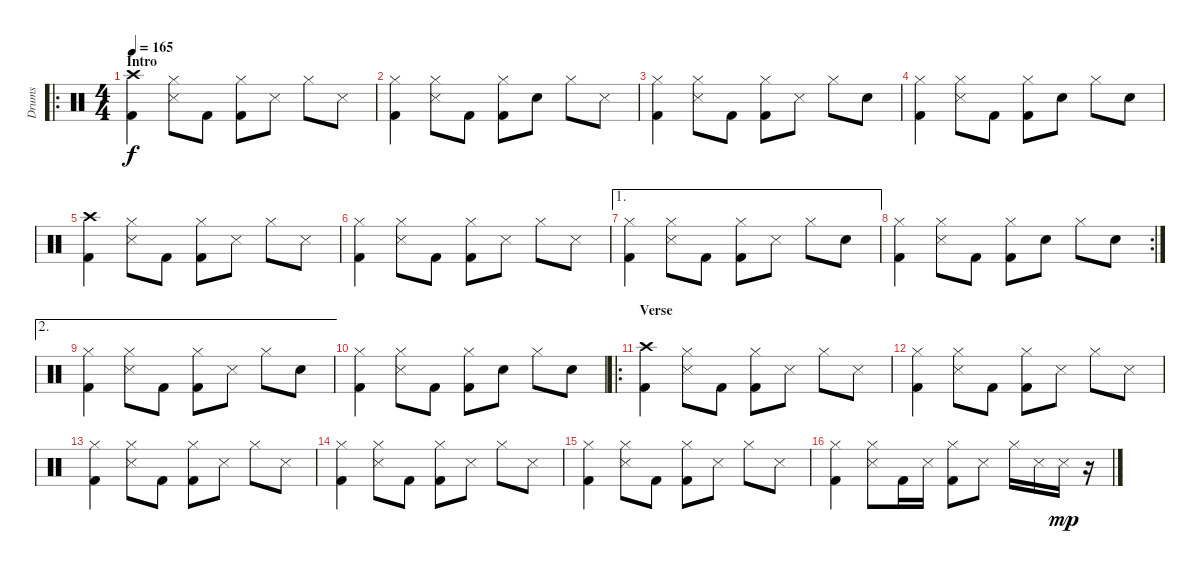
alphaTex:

\track ("Drums" "Drums") {instrument percussion}
\staff {score}
\articulation defaults
\ro
\ts (4 4)
\section ("" "Intro")
\tempo 165
\clef neutral
\ks c
("Kick (hit) 2" "Crash high (hit)").4{dy f} ("Snare (side stick) 3" "Hi-Hat (closed)").8 "Kick (hit) 2".8 ("Kick (hit) 2" "Hi-Hat (closed)").8 "Snare (side stick) 3".8 "Hi-Hat (closed)".8 "Snare (side stick) 3".8 |
("Kick (hit) 2" "Hi-Hat (closed)").4 ("Snare (side stick) 3" "Hi-Hat (closed)").8 "Kick (hit) 2".8 ("Kick (hit) 2" "Hi-Hat (closed)").8 "Snare (hit) 2".8 "Hi-Hat (closed)".8 "Snare (side stick) 3".8 |
("Kick (hit) 2" "Hi-Hat (closed)").4 ("Snare (side stick) 3" "Hi-Hat (closed)").8 "Kick (hit) 2".8 ("Kick (hit) 2" "Hi-Hat (closed)").8 "Snare (side stick) 3".8 "Hi-Hat (closed)".8 "Snare (hit) 2".8 |
("Kick (hit) 2" "Hi-Hat (closed)").4 ("Snare (side stick) 3" "Hi-Hat (closed)").8 "Kick (hit) 2".8 ("Kick (hit) 2" "Hi-Hat (closed)").8 "Snare (hit) 2".8 "Hi-Hat (closed)".8 "Snare (hit) 2".8 |
("Kick (hit) 2" "Crash high (hit)").4 ("Snare (side stick) 3" "Hi-Hat (closed)").8 "Kick (hit) 2".8 ("Kick (hit) 2" "Hi-Hat (closed)").8 "Snare (side stick) 3".8 "Hi-Hat (closed)".8 "Snare (side stick) 3".8 |
("Kick (hit) 2" "Hi-Hat (closed)").4 ("Snare (side stick) 3" "Hi-Hat (closed)").8 "Kick (hit) 2".8 ("Kick (hit) 2" "Hi-Hat (closed)").8 "Snare (side stick) 3".8 "Hi-Hat (closed)".8 "Snare (side stick) 3".8 |
\ae 1
("Kick (hit) 2" "Hi-Hat (closed)").4 ("Snare (side stick) 3" "Hi-Hat (closed)").8 "Kick (hit) 2".8 ("Kick (hit) 2" "Hi-Hat (closed)").8 "Snare (side stick) 3".8 "Hi-Hat (closed)".8 "Snare (hit) 2".8 |
\rc 2
("Kick (hit) 2" "Hi-Hat (closed)").4 ("Snare (side stick) 3" "Hi-Hat (closed)").8 "Kick (hit) 2".8 ("Kick (hit) 2" "Hi-Hat (closed)").8 "Snare (hit) 2".8 "Hi-Hat (closed)".8 "Snare (hit) 2".8 |
\ae 2
("Kick (hit) 2" "Hi-Hat (closed)").4 ("Snare (side stick) 3" "Hi-Hat (closed)").8 "Kick (hit) 2".8 ("Kick (hit) 2" "Hi-Hat (closed)").8 "Snare (side stick) 3".8 "Hi-Hat (closed)".8 "Snare (hit) 2".8 |
("Kick (hit) 2" "Hi-Hat (closed)").4 ("Snare (side stick) 3" "Hi-Hat (closed)").8 "Kick (hit) 2".8 ("Kick (hit) 2" "Hi-Hat (closed)").8 "Snare (hit) 2".8 "Hi-Hat (closed)".8 "Snare (hit) 2".8 |
\ro
\section ("" "Verse")
("Kick (hit) 2" "Crash high (hit)").4 ("Snare (side stick) 3" "Hi-Hat (closed)").8 "Kick (hit) 2".8 ("Kick (hit) 2" "Hi-Hat (closed)").8 "Snare (side stick) 3".8 "Hi-Hat (closed)".8 "Snare (side stick) 3".8 |
("Kick (hit) 2" "Hi-Hat (closed)").4 ("Snare (side stick) 3" "Hi-Hat (closed)").8 "Kick (hit) 2".8 ("Kick (hit) 2" "Hi-Hat (closed)").8 "Snare (side stick) 3".8 "Hi-Hat (closed)".8 "Snare (side stick) 3".8 |
("Kick (hit) 2" "Hi-Hat (closed)").4 ("Snare (side stick) 3" "Hi-Hat (closed)").8 "Kick (hit) 2".8 ("Kick (hit) 2" "Hi-Hat (closed)").8 "Snare (side stick) 3".8 "Hi-Hat (closed)".8 "Snare (side stick) 3".8 |
("Kick (hit) 2" "Hi-Hat (closed)").4 ("Snare (side stick) 3" "Hi-Hat (closed)").8 "Kick (hit) 2".8 ("Kick (hit) 2" "Hi-Hat (closed)").8 "Snare (side stick) 3".8 "Hi-Hat (closed)".8 "Snare (side stick) 3".8 |
("Kick (hit) 2" "Hi-Hat (closed)").4 ("Snare (side stick) 3" "Hi-Hat (closed)").8 "Kick (hit) 2".8 ("Kick (hit) 2" "Hi-Hat (closed)").8 "Snare (side stick) 3".8 "Hi-Hat (closed)".8 "Snare (side stick) 3".8 |
("Kick (hit) 2" "Hi-Hat (closed)").4 ("Snare (side stick) 3" "Hi-Hat (closed)").8 "Kick (hit) 2".16 "Snare (side stick) 3".16 ("Kick (hit) 2" "Hi-Hat (closed)").8 "Snare (side stick) 3".8 "Hi-Hat (closed)".16 "Snare (side stick) 3".16 "Snare (side stick) 3".16{dy mp} r.16
